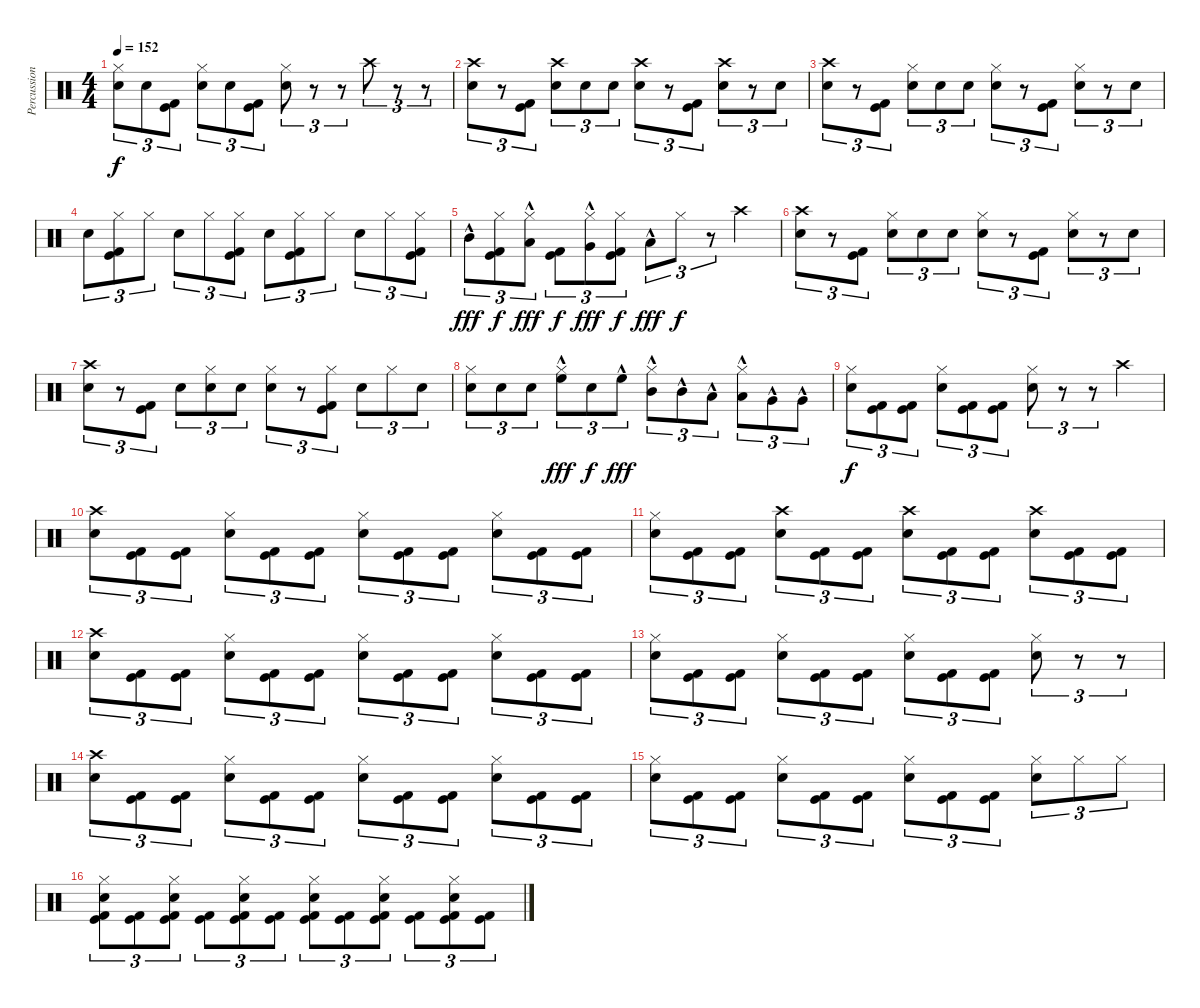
\track ("Percussion" "Percussion") {instrument percussion}
\staff {score}
\articulation defaults
\ts (4 4)
\tempo 152
\clef neutral
\ks c
("Hi-Hat (closed)" "Electric Snare (hit)").8{tu (3 2) dy f} "Electric Snare (hit)".8{tu (3 2)} ("Kick (hit) 2" "Kick (hit)").8{tu (3 2)} ("Hi-Hat (closed)" "Electric Snare (hit)").8{tu (3 2)} "Electric Snare (hit)".8{tu (3 2)} ("Kick (hit) 2" "Kick (hit)").8{tu (3 2)} ("Hi-Hat (closed)" "Electric Snare (hit)").8{tu (3 2)} r.8{tu (3 2)} r.8{tu (3 2)} "Crash high (hit)".8{tu (3 2)} r.8{tu (3 2)} r.8{tu (3 2)} |
("Crash high (hit)" "Electric Snare (hit)").8{tu (3 2)} r.8{tu (3 2)} ("Kick (hit) 2" "Kick (hit)").8{tu (3 2)} ("Crash high (hit)" "Electric Snare (hit)").8{tu (3 2)} "Electric Snare (hit)".8{tu (3 2)} "Electric Snare (hit)".8{tu (3 2)} ("Crash high (hit)" "Electric Snare (hit)").8{tu (3 2)} r.8{tu (3 2)} ("Kick (hit) 2" "Kick (hit)").8{tu (3 2)} ("Crash high (hit)" "Electric Snare (hit)").8{tu (3 2)} r.8{tu (3 2)} "Electric Snare (hit)".8{tu (3 2)} |
("Crash high (hit)" "Electric Snare (hit)").8{tu (3 2)} r.8{tu (3 2)} ("Kick (hit) 2" "Kick (hit)").8{tu (3 2)} ("Hi-Hat (closed)" "Electric Snare (hit)").8{tu (3 2)} "Electric Snare (hit)".8{tu (3 2)} "Electric Snare (hit)".8{tu (3 2)} ("Hi-Hat (closed)" "Electric Snare (hit)").8{tu (3 2)} r.8{tu (3 2)} ("Kick (hit) 2" "Kick (hit)").8{tu (3 2)} ("Hi-Hat (closed)" "Electric Snare (hit)").8{tu (3 2)} r.8{tu (3 2)} "Electric Snare (hit)".8{tu (3 2)} |
"Electric Snare (hit)".8{tu (3 2)} ("Hi-Hat (closed)" "Kick (hit) 2" "Kick (hit)").8{tu (3 2)} "Hi-Hat (closed)".8{tu (3 2)} "Electric Snare (hit)".8{tu (3 2)} "Hi-Hat (closed)".8{tu (3 2)} ("Hi-Hat (closed)" "Kick (hit) 2" "Kick (hit)").8{tu (3 2)} "Electric Snare (hit)".8{tu (3 2)} ("Hi-Hat (closed)" "Kick (hit) 2" "Kick (hit)").8{tu (3 2)} "Hi-Hat (closed)".8{tu (3 2)} "Electric Snare (hit)".8{tu (3 2)} "Hi-Hat (closed)".8{tu (3 2)} ("Hi-Hat (closed)" "Kick (hit) 2" "Kick (hit)").8{tu (3 2)} |
"Mid Tom (hit)"{hac}.8{tu (3 2) dy fff} ("Hi-Hat (closed)" "Kick (hit) 2" "Kick (hit)").8{tu (3 2) dy f} ("Hi-Hat (closed)" "Low Tom (hit)"{hac}).8{tu (3 2) dy fff} ("Kick (hit) 2" "Kick (hit)").8{tu (3 2) dy f} ("Hi-Hat (closed)" "Very Low Tom (hit)"{hac}).8{tu (3 2) dy fff} ("Hi-Hat (closed)" "Kick (hit) 2" "Kick (hit)").8{tu (3 2) dy f} "Low Floor Tom (hit)"{hac}.8{tu (3 2) dy fff} "Hi-Hat (closed)".8{tu (3 2) dy f} r.8{tu (3 2)} "Crash high (hit)".4 |
("Crash high (hit)" "Electric Snare (hit)").8{tu (3 2)} r.8{tu (3 2)} ("Kick (hit) 2" "Kick (hit)").8{tu (3 2)} ("Hi-Hat (closed)" "Electric Snare (hit)").8{tu (3 2)} "Electric Snare (hit)".8{tu (3 2)} "Electric Snare (hit)".8{tu (3 2)} ("Hi-Hat (closed)" "Electric Snare (hit)").8{tu (3 2)} r.8{tu (3 2)} ("Kick (hit) 2" "Kick (hit)").8{tu (3 2)} ("Hi-Hat (closed)" "Electric Snare (hit)").8{tu (3 2)} r.8{tu (3 2)} "Electric Snare (hit)".8{tu (3 2)} |
("Crash high (hit)" "Electric Snare (hit)").8{tu (3 2)} r.8{tu (3 2)} ("Kick (hit) 2" "Kick (hit)").8{tu (3 2)} "Electric Snare (hit)".8{tu (3 2)} ("Hi-Hat (closed)" "Electric Snare (hit)").8{tu (3 2)} "Electric Snare (hit)".8{tu (3 2)} ("Hi-Hat (closed)" "Electric Snare (hit)").8{tu (3 2)} r.8{tu (3 2)} ("Hi-Hat (closed)" "Kick (hit) 2" "Kick (hit)").8{tu (3 2)} "Electric Snare (hit)".8{tu (3 2)} "Hi-Hat (closed)".8{tu (3 2)} "Electric Snare (hit)".8{tu (3 2)} |
("Hi-Hat (closed)" "Electric Snare (hit)").8{tu (3 2)} "Electric Snare (hit)".8{tu (3 2)} "Electric Snare (hit)".8{tu (3 2)} ("Hi-Hat (closed)" "High Floor Tom (hit)"{hac}).8{tu (3 2) dy fff} "Electric Snare (hit)".8{tu (3 2) dy f} "High Floor Tom (hit)"{hac}.8{tu (3 2) dy fff} ("Hi-Hat (closed)" "Mid Tom (hit)"{hac}).8{tu (3 2)} "Mid Tom (hit)"{hac}.8{tu (3 2)} "Low Tom (hit)"{hac}.8{tu (3 2)} ("Hi-Hat (closed)" "Low Tom (hit)"{hac}).8{tu (3 2)} "Very Low Tom (hit)"{hac}.8{tu (3 2)} "Very Low Tom (hit)"{hac}.8{tu (3 2)} |
("Hi-Hat (closed)" "Electric Snare (hit)").8{tu (3 2) dy f} ("Kick (hit) 2" "Kick (hit)").8{tu (3 2)} ("Kick (hit) 2" "Kick (hit)").8{tu (3 2)} ("Hi-Hat (closed)" "Electric Snare (hit)").8{tu (3 2)} ("Kick (hit) 2" "Kick (hit)").8{tu (3 2)} ("Kick (hit) 2" "Kick (hit)").8{tu (3 2)} ("Hi-Hat (closed)" "Electric Snare (hit)").8{tu (3 2)} r.8{tu (3 2)} r.8{tu (3 2)} "Crash high (hit)".4 |
("Crash high (hit)" "Electric Snare (hit)").8{tu (3 2)} ("Kick (hit) 2" "Kick (hit)").8{tu (3 2)} ("Kick (hit) 2" "Kick (hit)").8{tu (3 2)} ("Hi-Hat (closed)" "Electric Snare (hit)").8{tu (3 2)} ("Kick (hit) 2" "Kick (hit)").8{tu (3 2)} ("Kick (hit) 2" "Kick (hit)").8{tu (3 2)} ("Hi-Hat (closed)" "Electric Snare (hit)").8{tu (3 2)} ("Kick (hit) 2" "Kick (hit)").8{tu (3 2)} ("Kick (hit) 2" "Kick (hit)").8{tu (3 2)} ("Hi-Hat (closed)" "Electric Snare (hit)").8{tu (3 2)} ("Kick (hit) 2" "Kick (hit)").8{tu (3 2)} ("Kick (hit) 2" "Kick (hit)").8{tu (3 2)} |
("Hi-Hat (closed)" "Electric Snare (hit)").8{tu (3 2)} ("Kick (hit) 2" "Kick (hit)").8{tu (3 2)} ("Kick (hit) 2" "Kick (hit)").8{tu (3 2)} ("Crash high (hit)" "Electric Snare (hit)").8{tu (3 2)} ("Kick (hit) 2" "Kick (hit)").8{tu (3 2)} ("Kick (hit) 2" "Kick (hit)").8{tu (3 2)} ("Crash high (hit)" "Electric Snare (hit)").8{tu (3 2)} ("Kick (hit) 2" "Kick (hit)").8{tu (3 2)} ("Kick (hit) 2" "Kick (hit)").8{tu (3 2)} ("Crash high (hit)" "Electric Snare (hit)").8{tu (3 2)} ("Kick (hit) 2" "Kick (hit)").8{tu (3 2)} ("Kick (hit) 2" "Kick (hit)").8{tu (3 2)} |
("Crash high (hit)" "Electric Snare (hit)").8{tu (3 2)} ("Kick (hit) 2" "Kick (hit)").8{tu (3 2)} ("Kick (hit) 2" "Kick (hit)").8{tu (3 2)} ("Hi-Hat (closed)" "Electric Snare (hit)").8{tu (3 2)} ("Kick (hit) 2" "Kick (hit)").8{tu (3 2)} ("Kick (hit) 2" "Kick (hit)").8{tu (3 2)} ("Hi-Hat (closed)" "Electric Snare (hit)").8{tu (3 2)} ("Kick (hit) 2" "Kick (hit)").8{tu (3 2)} ("Kick (hit) 2" "Kick (hit)").8{tu (3 2)} ("Hi-Hat (closed)" "Electric Snare (hit)").8{tu (3 2)} ("Kick (hit) 2" "Kick (hit)").8{tu (3 2)} ("Kick (hit) 2" "Kick (hit)").8{tu (3 2)} |
("Hi-Hat (closed)" "Electric Snare (hit)").8{tu (3 2)} ("Kick (hit) 2" "Kick (hit)").8{tu (3 2)} ("Kick (hit) 2" "Kick (hit)").8{tu (3 2)} ("Hi-Hat (closed)" "Electric Snare (hit)").8{tu (3 2)} ("Kick (hit) 2" "Kick (hit)").8{tu (3 2)} ("Kick (hit) 2" "Kick (hit)").8{tu (3 2)} ("Hi-Hat (closed)" "Electric Snare (hit)").8{tu (3 2)} ("Kick (hit) 2" "Kick (hit)").8{tu (3 2)} ("Kick (hit) 2" "Kick (hit)").8{tu (3 2)} ("Hi-Hat (closed)" "Electric Snare (hit)").8{tu (3 2)} r.8{tu (3 2)} r.8{tu (3 2)} |
("Crash high (hit)" "Electric Snare (hit)").8{tu (3 2)} ("Kick (hit) 2" "Kick (hit)").8{tu (3 2)} ("Kick (hit) 2" "Kick (hit)").8{tu (3 2)} ("Hi-Hat (closed)" "Electric Snare (hit)").8{tu (3 2)} ("Kick (hit) 2" "Kick (hit)").8{tu (3 2)} ("Kick (hit) 2" "Kick (hit)").8{tu (3 2)} ("Hi-Hat (closed)" "Electric Snare (hit)").8{tu (3 2)} ("Kick (hit) 2" "Kick (hit)").8{tu (3 2)} ("Kick (hit) 2" "Kick (hit)").8{tu (3 2)} ("Hi-Hat (closed)" "Electric Snare (hit)").8{tu (3 2)} ("Kick (hit) 2" "Kick (hit)").8{tu (3 2)} ("Kick (hit) 2" "Kick (hit)").8{tu (3 2)} |
("Hi-Hat (closed)" "Electric Snare (hit)").8{tu (3 2)} ("Kick (hit) 2" "Kick (hit)").8{tu (3 2)} ("Kick (hit) 2" "Kick (hit)").8{tu (3 2)} ("Hi-Hat (closed)" "Electric Snare (hit)").8{tu (3 2)} ("Kick (hit) 2" "Kick (hit)").8{tu (3 2)} ("Kick (hit) 2" "Kick (hit)").8{tu (3 2)} ("Hi-Hat (closed)" "Electric Snare (hit)").8{tu (3 2)} ("Kick (hit) 2" "Kick (hit)").8{tu (3 2)} ("Kick (hit) 2" "Kick (hit)").8{tu (3 2)} ("Hi-Hat (closed)" "Electric Snare (hit)").8{tu (3 2)} "Hi-Hat (closed)".8{tu (3 2)} "Hi-Hat (closed)".8{tu (3 2)} |
("Hi-Hat (closed)" "Electric Snare (hit)" "Kick (hit) 2" "Kick (hit)").8{tu (3 2)} ("Kick (hit) 2" "Kick (hit)").8{tu (3 2)} ("Hi-Hat (closed)" "Electric Snare (hit)" "Kick (hit) 2" "Kick (hit)").8{tu (3 2)} ("Kick (hit) 2" "Kick (hit)").8{tu (3 2)} ("Hi-Hat (closed)" "Electric Snare (hit)" "Kick (hit) 2" "Kick (hit)").8{tu (3 2)} ("Kick (hit) 2" "Kick (hit)").8{tu (3 2)} ("Hi-Hat (closed)" "Electric Snare (hit)" "Kick (hit) 2" "Kick (hit)").8{tu (3 2)} ("Kick (hit) 2" "Kick (hit)").8{tu (3 2)} ("Hi-Hat (closed)" "Electric Snare (hit)" "Kick (hit) 2" "Kick (hit)").8{tu (3 2)} ("Kick (hit) 2" "Kick (hit)").8{tu (3 2)} ("Hi-Hat (closed)" "Electric Snare (hit)" "Kick (hit) 2" "Kick (hit)").8{tu (3 2)} ("Kick (hit) 2" "Kick (hit)").8{tu (3 2)}
